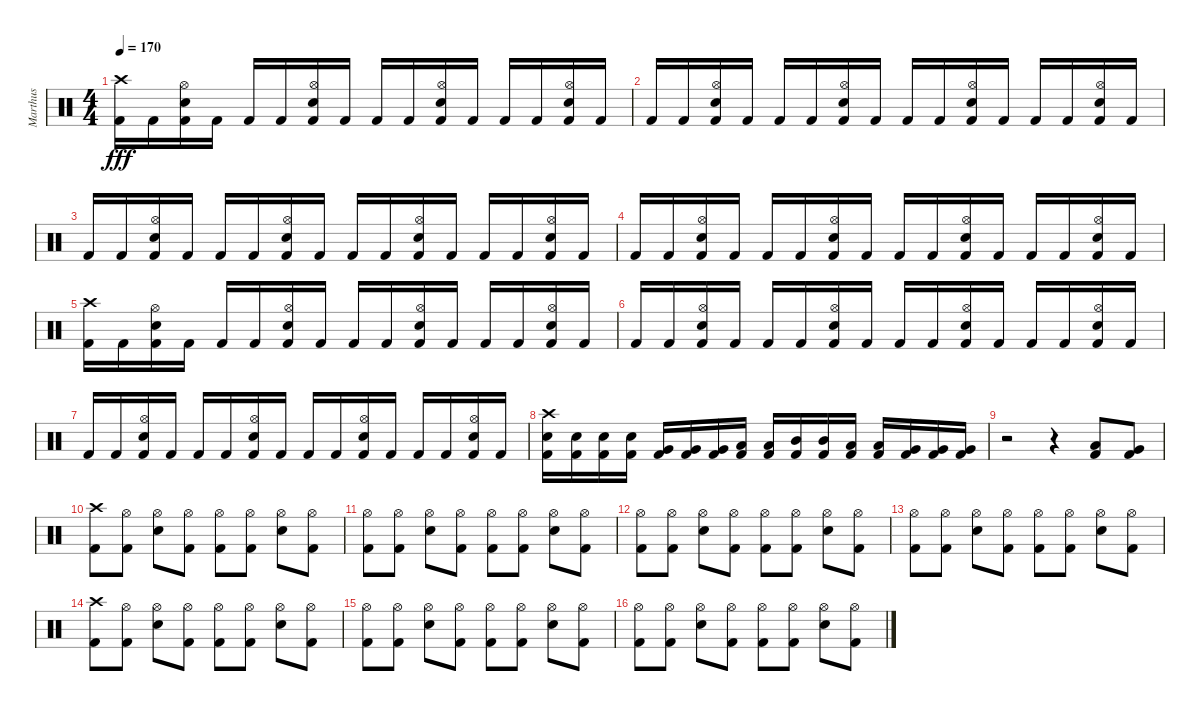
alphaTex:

\track ("Marthus" "Marthus") {instrument percussion}
\staff {score}
\articulation defaults
\ts (4 4)
\tempo 170
\clef neutral
\ks c
("Crash high (hit)" "Kick (hit) 2").16{dy fff} "Kick (hit) 2".16 ("Hi-Hat (open)" "Electric Snare (hit)" "Kick (hit) 2").16 "Kick (hit) 2".16 "Kick (hit) 2".16 "Kick (hit) 2".16 ("Hi-Hat (open)" "Electric Snare (hit)" "Kick (hit) 2").16 "Kick (hit) 2".16 "Kick (hit) 2".16 "Kick (hit) 2".16 ("Hi-Hat (open)" "Electric Snare (hit)" "Kick (hit) 2").16 "Kick (hit) 2".16 "Kick (hit) 2".16 "Kick (hit) 2".16 ("Hi-Hat (open)" "Electric Snare (hit)" "Kick (hit) 2").16 "Kick (hit) 2".16 |
"Kick (hit) 2".16 "Kick (hit) 2".16 ("Hi-Hat (open)" "Electric Snare (hit)" "Kick (hit) 2").16 "Kick (hit) 2".16 "Kick (hit) 2".16 "Kick (hit) 2".16 ("Hi-Hat (open)" "Electric Snare (hit)" "Kick (hit) 2").16 "Kick (hit) 2".16 "Kick (hit) 2".16 "Kick (hit) 2".16 ("Hi-Hat (open)" "Electric Snare (hit)" "Kick (hit) 2").16 "Kick (hit) 2".16 "Kick (hit) 2".16 "Kick (hit) 2".16 ("Hi-Hat (open)" "Electric Snare (hit)" "Kick (hit) 2").16 "Kick (hit) 2".16 |
"Kick (hit) 2".16 "Kick (hit) 2".16 ("Hi-Hat (open)" "Electric Snare (hit)" "Kick (hit) 2").16 "Kick (hit) 2".16 "Kick (hit) 2".16 "Kick (hit) 2".16 ("Hi-Hat (open)" "Electric Snare (hit)" "Kick (hit) 2").16 "Kick (hit) 2".16 "Kick (hit) 2".16 "Kick (hit) 2".16 ("Hi-Hat (open)" "Electric Snare (hit)" "Kick (hit) 2").16 "Kick (hit) 2".16 "Kick (hit) 2".16 "Kick (hit) 2".16 ("Hi-Hat (open)" "Electric Snare (hit)" "Kick (hit) 2").16 "Kick (hit) 2".16 |
"Kick (hit) 2".16 "Kick (hit) 2".16 ("Hi-Hat (open)" "Electric Snare (hit)" "Kick (hit) 2").16 "Kick (hit) 2".16 "Kick (hit) 2".16 "Kick (hit) 2".16 ("Hi-Hat (open)" "Electric Snare (hit)" "Kick (hit) 2").16 "Kick (hit) 2".16 "Kick (hit) 2".16 "Kick (hit) 2".16 ("Hi-Hat (open)" "Electric Snare (hit)" "Kick (hit) 2").16 "Kick (hit) 2".16 "Kick (hit) 2".16 "Kick (hit) 2".16 ("Hi-Hat (open)" "Electric Snare (hit)" "Kick (hit) 2").16 "Kick (hit) 2".16 |
("Crash high (hit)" "Kick (hit) 2").16 "Kick (hit) 2".16 ("Hi-Hat (open)" "Electric Snare (hit)" "Kick (hit) 2").16 "Kick (hit) 2".16 "Kick (hit) 2".16 "Kick (hit) 2".16 ("Hi-Hat (open)" "Electric Snare (hit)" "Kick (hit) 2").16 "Kick (hit) 2".16 "Kick (hit) 2".16 "Kick (hit) 2".16 ("Hi-Hat (open)" "Electric Snare (hit)" "Kick (hit) 2").16 "Kick (hit) 2".16 "Kick (hit) 2".16 "Kick (hit) 2".16 ("Hi-Hat (open)" "Electric Snare (hit)" "Kick (hit) 2").16 "Kick (hit) 2".16 |
"Kick (hit) 2".16 "Kick (hit) 2".16 ("Hi-Hat (open)" "Electric Snare (hit)" "Kick (hit) 2").16 "Kick (hit) 2".16 "Kick (hit) 2".16 "Kick (hit) 2".16 ("Hi-Hat (open)" "Electric Snare (hit)" "Kick (hit) 2").16 "Kick (hit) 2".16 "Kick (hit) 2".16 "Kick (hit) 2".16 ("Hi-Hat (open)" "Electric Snare (hit)" "Kick (hit) 2").16 "Kick (hit) 2".16 "Kick (hit) 2".16 "Kick (hit) 2".16 ("Hi-Hat (open)" "Electric Snare (hit)" "Kick (hit) 2").16 "Kick (hit) 2".16 |
"Kick (hit) 2".16 "Kick (hit) 2".16 ("Hi-Hat (open)" "Electric Snare (hit)" "Kick (hit) 2").16 "Kick (hit) 2".16 "Kick (hit) 2".16 "Kick (hit) 2".16 ("Hi-Hat (open)" "Electric Snare (hit)" "Kick (hit) 2").16 "Kick (hit) 2".16 "Kick (hit) 2".16 "Kick (hit) 2".16 ("Hi-Hat (open)" "Electric Snare (hit)" "Kick (hit) 2").16 "Kick (hit) 2".16 "Kick (hit) 2".16 "Kick (hit) 2".16 ("Hi-Hat (open)" "Electric Snare (hit)" "Kick (hit) 2").16 "Kick (hit) 2".16 |
("Crash high (hit)" "Electric Snare (hit)" "Kick (hit) 2").16 ("Electric Snare (hit)" "Kick (hit) 2").16 ("Electric Snare (hit)" "Kick (hit) 2").16 ("Electric Snare (hit)" "Kick (hit) 2").16 ("Very Low Tom (hit)" "Kick (hit) 2").16 ("Very Low Tom (hit)" "Kick (hit) 2").16 ("Very Low Tom (hit)" "Kick (hit) 2").16 ("Low Tom (hit)" "Kick (hit) 2").16 ("Low Tom (hit)" "Kick (hit) 2").16 ("Mid Tom (hit)" "Kick (hit) 2").16 ("Mid Tom (hit)" "Kick (hit) 2").16 ("Low Tom (hit)" "Kick (hit) 2").16 ("Low Tom (hit)" "Kick (hit) 2").16 ("Very Low Tom (hit)" "Kick (hit) 2").16 ("Very Low Tom (hit)" "Kick (hit) 2").16 ("Very Low Tom (hit)" "Kick (hit) 2").16 |
r.2 r.4 ("Low Tom (hit)" "Kick (hit) 2").8 ("Very Low Tom (hit)" "Kick (hit) 2").8 |
("Crash high (hit)" "Kick (hit) 2").8 ("Hi-Hat (open)" "Kick (hit) 2").8 ("Hi-Hat (open)" "Electric Snare (hit)").8 ("Hi-Hat (open)" "Kick (hit) 2").8 ("Hi-Hat (open)" "Kick (hit) 2").8 ("Hi-Hat (open)" "Kick (hit) 2").8 ("Hi-Hat (open)" "Electric Snare (hit)").8 ("Hi-Hat (open)" "Kick (hit) 2").8 |
("Hi-Hat (open)" "Kick (hit) 2").8 ("Hi-Hat (open)" "Kick (hit) 2").8 ("Hi-Hat (open)" "Electric Snare (hit)").8 ("Hi-Hat (open)" "Kick (hit) 2").8 ("Hi-Hat (open)" "Kick (hit) 2").8 ("Hi-Hat (open)" "Kick (hit) 2").8 ("Hi-Hat (open)" "Electric Snare (hit)").8 ("Hi-Hat (open)" "Kick (hit) 2").8 |
("Hi-Hat (open)" "Kick (hit) 2").8 ("Hi-Hat (open)" "Kick (hit) 2").8 ("Hi-Hat (open)" "Electric Snare (hit)").8 ("Hi-Hat (open)" "Kick (hit) 2").8 ("Hi-Hat (open)" "Kick (hit) 2").8 ("Hi-Hat (open)" "Kick (hit) 2").8 ("Hi-Hat (open)" "Electric Snare (hit)").8 ("Hi-Hat (open)" "Kick (hit) 2").8 |
("Hi-Hat (open)" "Kick (hit) 2").8 ("Hi-Hat (open)" "Kick (hit) 2").8 ("Hi-Hat (open)" "Electric Snare (hit)").8 ("Hi-Hat (open)" "Kick (hit) 2").8 ("Hi-Hat (open)" "Kick (hit) 2").8 ("Hi-Hat (open)" "Kick (hit) 2").8 ("Hi-Hat (open)" "Electric Snare (hit)").8 ("Hi-Hat (open)" "Kick (hit) 2").8 |
("Crash high (hit)" "Kick (hit) 2").8 ("Hi-Hat (open)" "Kick (hit) 2").8 ("Hi-Hat (open)" "Electric Snare (hit)").8 ("Hi-Hat (open)" "Kick (hit) 2").8 ("Hi-Hat (open)" "Kick (hit) 2").8 ("Hi-Hat (open)" "Kick (hit) 2").8 ("Hi-Hat (open)" "Electric Snare (hit)").8 ("Hi-Hat (open)" "Kick (hit) 2").8 |
("Hi-Hat (open)" "Kick (hit) 2").8 ("Hi-Hat (open)" "Kick (hit) 2").8 ("Hi-Hat (open)" "Electric Snare (hit)").8 ("Hi-Hat (open)" "Kick (hit) 2").8 ("Hi-Hat (open)" "Kick (hit) 2").8 ("Hi-Hat (open)" "Kick (hit) 2").8 ("Hi-Hat (open)" "Electric Snare (hit)").8 ("Hi-Hat (open)" "Kick (hit) 2").8 |
("Hi-Hat (open)" "Kick (hit) 2").8 ("Hi-Hat (open)" "Kick (hit) 2").8 ("Hi-Hat (open)" "Electric Snare (hit)").8 ("Hi-Hat (open)" "Kick (hit) 2").8 ("Hi-Hat (open)" "Kick (hit) 2").8 ("Hi-Hat (open)" "Kick (hit) 2").8 ("Hi-Hat (open)" "Electric Snare (hit)").8 ("Hi-Hat (open)" "Kick (hit) 2").8
